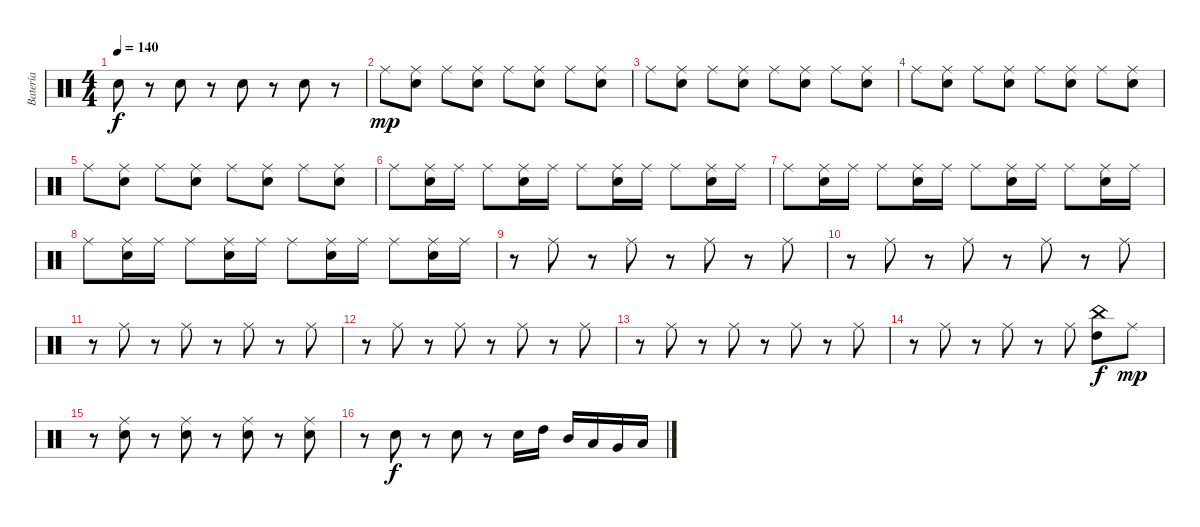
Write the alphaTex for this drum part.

\track ("Batería" "Batería") {instrument percussion}
\staff {score}
\articulation defaults
\ts (4 4)
\tempo 140
\clef neutral
\ks c "Snare (hit) 2".8{dy f}
r.8 "Snare (hit) 2".8 r.8 "Snare (hit) 2".8 r.8 "Snare (hit) 2".8 r.8 |
"Ride (middle)".8{dy mp} ("Ride (middle)" "Snare (hit) 2").8 "Ride (middle)".8 ("Ride (middle)" "Snare (hit) 2").8 "Ride (middle)".8 ("Ride (middle)" "Snare (hit) 2").8 "Ride (middle)".8 ("Ride (middle)" "Snare (hit) 2").8 |
"Ride (middle)".8 ("Ride (middle)" "Snare (hit) 2").8 "Ride (middle)".8 ("Ride (middle)" "Snare (hit) 2").8 "Ride (middle)".8 ("Ride (middle)" "Snare (hit) 2").8 "Ride (middle)".8 ("Ride (middle)" "Snare (hit) 2").8 |
"Ride (middle)".8 ("Ride (middle)" "Snare (hit) 2").8 "Ride (middle)".8 ("Ride (middle)" "Snare (hit) 2").8 "Ride (middle)".8 ("Ride (middle)" "Snare (hit) 2").8 "Ride (middle)".8 ("Ride (middle)" "Snare (hit) 2").8 |
"Ride (middle)".8 ("Ride (middle)" "Snare (hit) 2").8 "Ride (middle)".8 ("Ride (middle)" "Snare (hit) 2").8 "Ride (middle)".8 ("Ride (middle)" "Snare (hit) 2").8 "Ride (middle)".8 ("Ride (middle)" "Snare (hit) 2").8 |
"Ride (middle)".8 ("Ride (middle)" "Snare (hit) 2").16 "Ride (middle)".16 "Ride (middle)".8 ("Ride (middle)" "Snare (hit) 2").16 "Ride (middle)".16 "Ride (middle)".8 ("Ride (middle)" "Snare (hit) 2").16 "Ride (middle)".16 "Ride (middle)".8 ("Ride (middle)" "Snare (hit) 2").16 "Ride (middle)".16 |
"Ride (middle)".8 ("Ride (middle)" "Snare (hit) 2").16 "Ride (middle)".16 "Ride (middle)".8 ("Ride (middle)" "Snare (hit) 2").16 "Ride (middle)".16 "Ride (middle)".8 ("Ride (middle)" "Snare (hit) 2").16 "Ride (middle)".16 "Ride (middle)".8 ("Ride (middle)" "Snare (hit) 2").16 "Ride (middle)".16 |
"Ride (middle)".8 ("Ride (middle)" "Snare (hit) 2").16 "Ride (middle)".16 "Ride (middle)".8 ("Ride (middle)" "Snare (hit) 2").16 "Ride (middle)".16 "Ride (middle)".8 ("Ride (middle)" "Snare (hit) 2").16 "Ride (middle)".16 "Ride (middle)".8 ("Ride (middle)" "Snare (hit) 2").16 "Ride (middle)".16 |
r.8 "Ride (middle)".8 r.8 "Ride (middle)".8 r.8 "Ride (middle)".8 r.8 "Ride (middle)".8 |
r.8 "Ride (middle)".8 r.8 "Ride (middle)".8 r.8 "Ride (middle)".8 r.8 "Ride (middle)".8 |
r.8 "Ride (middle)".8 r.8 "Ride (middle)".8 r.8 "Ride (middle)".8 r.8 "Ride (middle)".8 |
r.8 "Ride (middle)".8 r.8 "Ride (middle)".8 r.8 "Ride (middle)".8 r.8 "Ride (middle)".8 |
r.8 "Ride (middle)".8 r.8 "Ride (middle)".8 r.8 "Ride (middle)".8 r.8 "Ride (middle)".8 |
r.8 "Ride (middle)".8 r.8 "Ride (middle)".8 r.8 "Ride (middle)".8 ("High Tom (hit)" "China (hit)").8{dy f} "Ride (middle)".8{dy mp} |
r.8 ("Ride (middle)" "Snare (hit) 2").8 r.8 ("Ride (middle)" "Snare (hit) 2").8 r.8 ("Ride (middle)" "Snare (hit) 2").8 r.8 ("Ride (middle)" "Snare (hit) 2").8 |
r.8 "Snare (hit) 2".8{dy f} r.8 "Snare (hit) 2".8 r.8 "Snare (hit) 2".16 "High Tom (hit)".16 "Mid Tom (hit)".16 "Low Tom (hit)".16 "Very Low Tom (hit)".16 "Low Floor Tom (hit)".16
